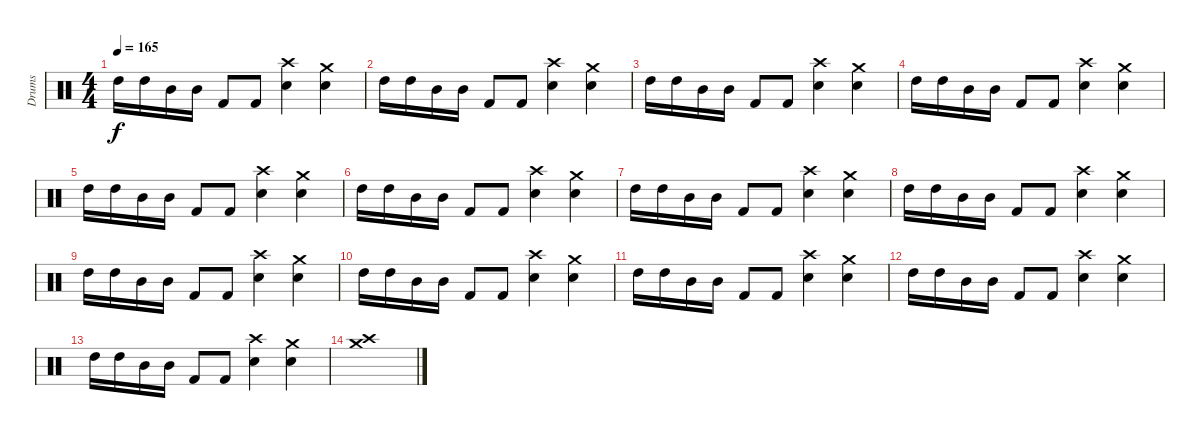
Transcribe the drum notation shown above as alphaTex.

\track ("Drums" "Drums") {instrument percussion}
\staff {score}
\articulation defaults
\ts (4 4)
\tempo 165
\clef neutral
\ks c "High Tom (hit)".16{dy f} "High Tom (hit)".16 "Mid Tom (hit)".16 "Mid Tom (hit)".16 "Kick (hit) 2".8 "Kick (hit) 2".8
("Crash high (hit)" "Electric Snare (hit)").4 ("Crash medium (hit)" "Electric Snare (hit)").4 |
"High Tom (hit)".16 "High Tom (hit)".16 "Mid Tom (hit)".16 "Mid Tom (hit)".16 "Kick (hit) 2".8 "Kick (hit) 2".8 ("Crash high (hit)" "Electric Snare (hit)").4 ("Crash medium (hit)" "Electric Snare (hit)").4 |
"High Tom (hit)".16 "High Tom (hit)".16 "Mid Tom (hit)".16 "Mid Tom (hit)".16 "Kick (hit) 2".8 "Kick (hit) 2".8 ("Crash high (hit)" "Electric Snare (hit)").4 ("Crash medium (hit)" "Electric Snare (hit)").4 |
"High Tom (hit)".16 "High Tom (hit)".16 "Mid Tom (hit)".16 "Mid Tom (hit)".16 "Kick (hit) 2".8 "Kick (hit) 2".8 ("Crash high (hit)" "Electric Snare (hit)").4 ("Crash medium (hit)" "Electric Snare (hit)").4 |
"High Tom (hit)".16 "High Tom (hit)".16 "Mid Tom (hit)".16 "Mid Tom (hit)".16 "Kick (hit) 2".8 "Kick (hit) 2".8 ("Crash high (hit)" "Electric Snare (hit)").4 ("Crash medium (hit)" "Electric Snare (hit)").4 |
"High Tom (hit)".16 "High Tom (hit)".16 "Mid Tom (hit)".16 "Mid Tom (hit)".16 "Kick (hit) 2".8 "Kick (hit) 2".8 ("Crash high (hit)" "Electric Snare (hit)").4 ("Crash medium (hit)" "Electric Snare (hit)").4 |
"High Tom (hit)".16 "High Tom (hit)".16 "Mid Tom (hit)".16 "Mid Tom (hit)".16 "Kick (hit) 2".8 "Kick (hit) 2".8 ("Crash high (hit)" "Electric Snare (hit)").4 ("Crash medium (hit)" "Electric Snare (hit)").4 |
"High Tom (hit)".16 "High Tom (hit)".16 "Mid Tom (hit)".16 "Mid Tom (hit)".16 "Kick (hit) 2".8 "Kick (hit) 2".8 ("Crash high (hit)" "Electric Snare (hit)").4 ("Crash medium (hit)" "Electric Snare (hit)").4 |
"High Tom (hit)".16 "High Tom (hit)".16 "Mid Tom (hit)".16 "Mid Tom (hit)".16 "Kick (hit) 2".8 "Kick (hit) 2".8 ("Crash high (hit)" "Electric Snare (hit)").4 ("Crash medium (hit)" "Electric Snare (hit)").4 |
"High Tom (hit)".16 "High Tom (hit)".16 "Mid Tom (hit)".16 "Mid Tom (hit)".16 "Kick (hit) 2".8 "Kick (hit) 2".8 ("Crash high (hit)" "Electric Snare (hit)").4 ("Crash medium (hit)" "Electric Snare (hit)").4 |
"High Tom (hit)".16 "High Tom (hit)".16 "Mid Tom (hit)".16 "Mid Tom (hit)".16 "Kick (hit) 2".8 "Kick (hit) 2".8 ("Crash high (hit)" "Electric Snare (hit)").4 ("Crash medium (hit)" "Electric Snare (hit)").4 |
"High Tom (hit)".16 "High Tom (hit)".16 "Mid Tom (hit)".16 "Mid Tom (hit)".16 "Kick (hit) 2".8 "Kick (hit) 2".8 ("Crash high (hit)" "Electric Snare (hit)").4 ("Crash medium (hit)" "Electric Snare (hit)").4 |
"High Tom (hit)".16 "High Tom (hit)".16 "Mid Tom (hit)".16 "Mid Tom (hit)".16 "Kick (hit) 2".8 "Kick (hit) 2".8 ("Crash high (hit)" "Electric Snare (hit)").4 ("Crash medium (hit)" "Electric Snare (hit)").4 |
("Crash medium (hit)" "Crash high (hit)").1
